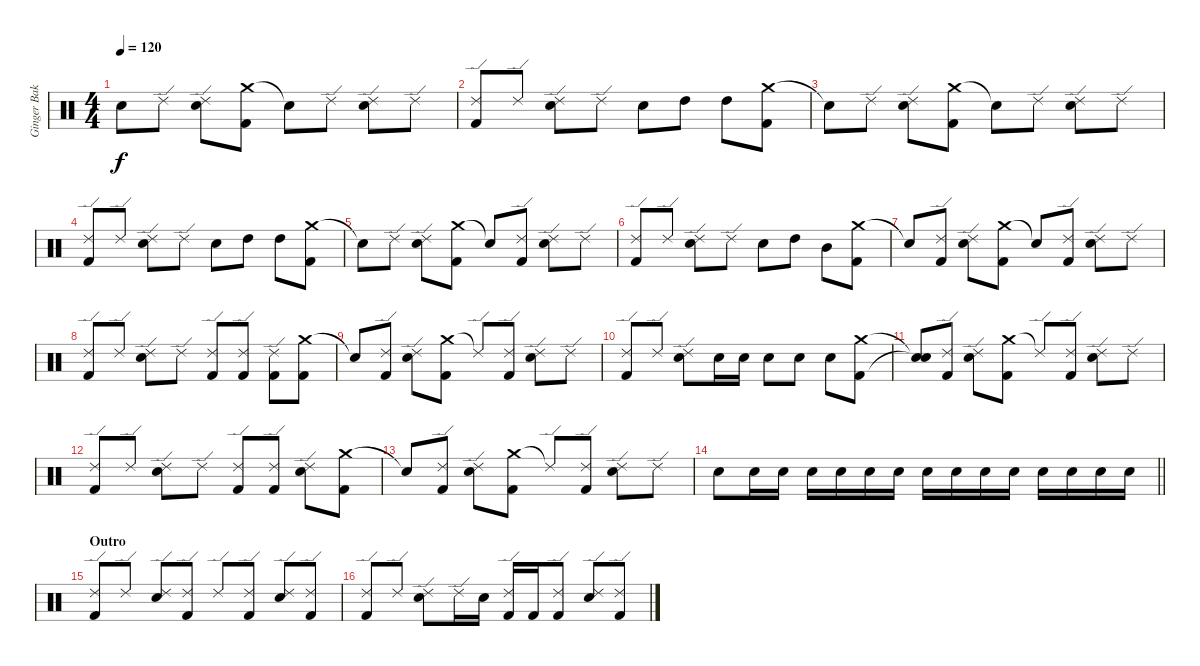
\track ("Ginger Baker Drums" "Ginger Bak") {instrument percussion}
\staff {score}
\articulation defaults
\ts (4 4)
\tempo 120
\clef neutral
\ks c "Snare (hit)"{t}.8{dy f} "Ride (edge) 2".8
("Ride (edge) 2" "Snare (hit) 2").8 ("Crash medium (hit)" "Kick (hit) 2").8 "Snare (hit)"{t}.8 "Ride (edge) 2".8 ("Ride (edge) 2" "Snare (hit) 2").8 "Ride (edge) 2".8 |
("Ride (edge) 2" "Kick (hit) 2").8 "Ride (edge) 2".8 ("Ride (edge) 2" "Snare (hit) 2").8 "Ride (edge) 2".8 "Snare (hit) 2".8 "High Tom (hit)".8 "High Tom (hit)".8 ("Crash medium (hit)" "Kick (hit) 2").8 |
"Snare (hit)"{t}.8 "Ride (edge) 2".8 ("Ride (edge) 2" "Snare (hit) 2").8 ("Crash medium (hit)" "Kick (hit) 2").8 "Snare (hit)"{t}.8 "Ride (edge) 2".8 ("Ride (edge) 2" "Snare (hit) 2").8 "Ride (edge) 2".8 |
("Ride (edge) 2" "Kick (hit) 2").8 "Ride (edge) 2".8 ("Ride (edge) 2" "Snare (hit) 2").8 "Ride (edge) 2".8 "Snare (hit) 2".8 "High Tom (hit)".8 "High Tom (hit)".8 ("Crash medium (hit)" "Kick (hit) 2").8 |
"Snare (hit)"{t}.8 "Ride (edge) 2".8 ("Ride (edge) 2" "Snare (hit) 2").8 ("Crash medium (hit)" "Kick (hit) 2").8 "Snare (hit)"{t}.8 ("Ride (edge) 2" "Kick (hit) 2").8 ("Ride (edge) 2" "Snare (hit) 2").8 "Ride (edge) 2".8 |
("Ride (edge) 2" "Kick (hit) 2").8 "Ride (edge) 2".8 ("Ride (edge) 2" "Snare (hit) 2").8 "Ride (edge) 2".8 "Snare (hit) 2".8 "High Tom (hit)".8 "Mid Tom (hit)".8 ("Crash medium (hit)" "Kick (hit) 2").8 |
"Snare (hit)"{t}.8 ("Ride (edge) 2" "Kick (hit) 2").8 ("Ride (edge) 2" "Snare (hit) 2").8 ("Crash medium (hit)" "Kick (hit) 2").8 "Snare (hit)"{t}.8 ("Ride (edge) 2" "Kick (hit) 2").8 ("Ride (edge) 2" "Snare (hit) 2").8 "Ride (edge) 2".8 |
("Ride (edge) 2" "Kick (hit) 2").8 "Ride (edge) 2".8 ("Ride (edge) 2" "Snare (hit) 2").8 "Ride (edge) 2".8 ("Ride (edge) 2" "Kick (hit) 2").8 ("Ride (edge) 2" "Kick (hit) 2").8 ("Ride (edge) 2" "Kick (hit) 2").8 ("Crash medium (hit)" "Kick (hit) 2").8 |
"Snare (hit)"{t}.8 ("Ride (edge) 2" "Kick (hit) 2").8 ("Ride (edge) 2" "Snare (hit) 2").8 ("Crash medium (hit)" "Kick (hit) 2").8 "Ride (edge) 2"{t}.8 ("Ride (edge) 2" "Kick (hit) 2").8 ("Ride (edge) 2" "Snare (hit) 2").8 "Ride (edge) 2".8 |
("Ride (edge) 2" "Kick (hit) 2").8 "Ride (edge) 2".8 ("Ride (edge) 2" "Snare (hit) 2").8 "Snare (hit) 2".16 "Snare (hit) 2".16 "Snare (hit) 2".8 "Snare (hit) 2".8 "Snare (hit) 2".8 ("Crash medium (hit)" "Kick (hit) 2").8 |
("Snare (hit)"{t} "Snare (hit)"{t}).8 ("Ride (edge) 2" "Kick (hit) 2").8 ("Ride (edge) 2" "Snare (hit) 2").8 ("Crash medium (hit)" "Kick (hit) 2").8 "Ride (edge) 2"{t}.8 ("Ride (edge) 2" "Kick (hit) 2").8 ("Ride (edge) 2" "Snare (hit) 2").8 "Ride (edge) 2".8 |
("Ride (edge) 2" "Kick (hit) 2").8 "Ride (edge) 2".8 ("Ride (edge) 2" "Snare (hit) 2").8 "Ride (edge) 2".8 ("Ride (edge) 2" "Kick (hit) 2").8 ("Ride (edge) 2" "Kick (hit) 2").8 ("Ride (edge) 2" "Snare (hit) 2").8 ("Crash medium (hit)" "Kick (hit) 2").8 |
"Snare (hit)"{t}.8 ("Ride (edge) 2" "Kick (hit) 2").8 ("Ride (edge) 2" "Snare (hit) 2").8 ("Crash medium (hit)" "Kick (hit) 2").8 "Ride (edge) 2"{t}.8 ("Ride (edge) 2" "Kick (hit) 2").8 ("Ride (edge) 2" "Snare (hit) 2").8 "Ride (edge) 2".8 |
\barLineRight lightlight "Snare (hit) 2".8 "Snare (hit) 2".16 "Snare (hit) 2".16 "Snare (hit) 2".16 "Snare (hit) 2".16 "Snare (hit) 2".16 "Snare (hit) 2".16 "Snare (hit) 2".16 "Snare (hit) 2".16 "Snare (hit) 2".16 "Snare (hit) 2".16 "Snare (hit) 2".16 "Snare (hit) 2".16 "Snare (hit) 2".16 "Snare (hit) 2".16
|
\section ("" "Outro")
("Ride (edge) 2" "Kick (hit) 2").8 "Ride (edge) 2".8 ("Ride (edge) 2" "Snare (hit) 2").8 ("Ride (edge) 2" "Kick (hit) 2").8 "Ride (edge) 2".8 ("Ride (edge) 2" "Kick (hit) 2").8 ("Ride (edge) 2" "Snare (hit) 2").8 ("Ride (edge) 2" "Kick (hit) 2").8 |
("Ride (edge) 2" "Kick (hit) 2").8 "Ride (edge) 2".8 ("Ride (edge) 2" "Snare (hit) 2").8 "Ride (edge) 2".16 "Snare (hit) 2".16 ("Ride (edge) 2" "Kick (hit) 2").16 "Kick (hit) 2".16 ("Ride (edge) 2" "Kick (hit) 2").8 ("Ride (edge) 2" "Snare (hit) 2").8 ("Ride (edge) 2" "Kick (hit) 2").8
